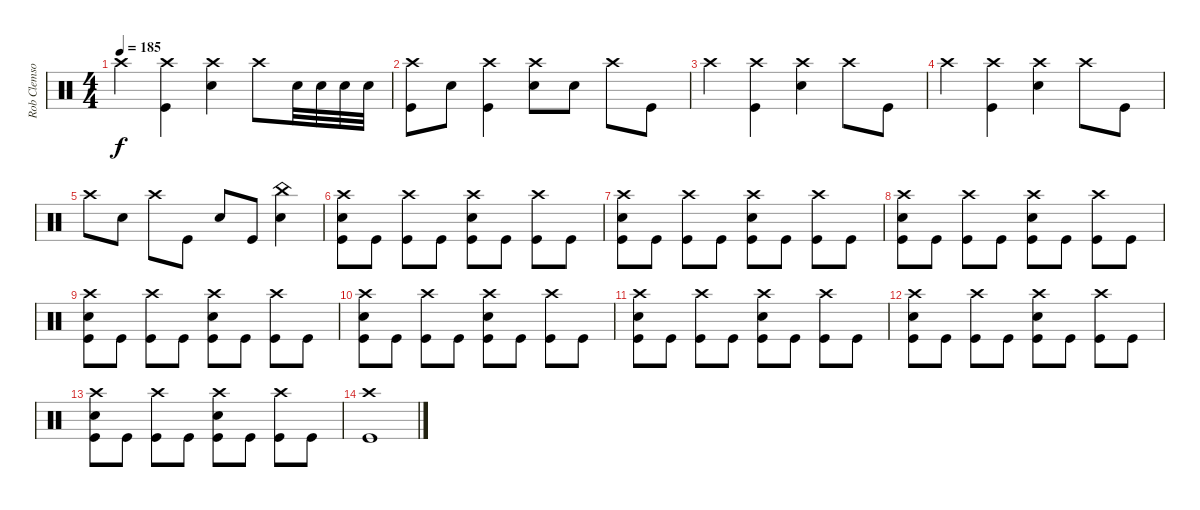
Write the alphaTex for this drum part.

\track ("Rob Clemson (Drums)" "Rob Clemso") {instrument percussion}
\staff {score}
\articulation defaults
\ts (4 4)
\tempo 185
\clef neutral
\ks c "Crash high (hit)".4{dy f}
("Crash high (hit)" "Kick (hit)").4 ("Crash high (hit)" "Electric Snare (hit)").4 "Crash high (hit)".8 "Electric Snare (hit)".32 "Electric Snare (hit)".32 "Electric Snare (hit)".32 "Electric Snare (hit)".32 |
("Crash high (hit)" "Kick (hit)").8 "Electric Snare (hit)".8 ("Crash high (hit)" "Kick (hit)").4 ("Crash high (hit)" "Electric Snare (hit)").8 "Electric Snare (hit)".8 "Crash high (hit)".8 "Kick (hit)".8 |
"Crash high (hit)".4 ("Crash high (hit)" "Kick (hit)").4 ("Crash high (hit)" "Electric Snare (hit)").4 "Crash high (hit)".8 "Kick (hit)".8 |
"Crash high (hit)".4 ("Crash high (hit)" "Kick (hit)").4 ("Crash high (hit)" "Electric Snare (hit)").4 "Crash high (hit)".8 "Kick (hit)".8 |
"Crash high (hit)".8 "Electric Snare (hit)".8 "Crash high (hit)".8 "Kick (hit)".8 "Electric Snare (hit)".8 "Kick (hit)".8 ("Electric Snare (hit)" "China (hit)").4 |
("Crash high (hit)" "Kick (hit)" "Electric Snare (hit)").8 "Kick (hit)".8 ("Crash high (hit)" "Kick (hit)").8 "Kick (hit)".8 ("Crash high (hit)" "Kick (hit)" "Electric Snare (hit)").8 "Kick (hit)".8 ("Crash high (hit)" "Kick (hit)").8 "Kick (hit)".8 |
("Crash high (hit)" "Kick (hit)" "Electric Snare (hit)").8 "Kick (hit)".8 ("Crash high (hit)" "Kick (hit)").8 "Kick (hit)".8 ("Crash high (hit)" "Kick (hit)" "Electric Snare (hit)").8 "Kick (hit)".8 ("Crash high (hit)" "Kick (hit)").8 "Kick (hit)".8 |
("Crash high (hit)" "Kick (hit)" "Electric Snare (hit)").8 "Kick (hit)".8 ("Crash high (hit)" "Kick (hit)").8 "Kick (hit)".8 ("Crash high (hit)" "Kick (hit)" "Electric Snare (hit)").8 "Kick (hit)".8 ("Crash high (hit)" "Kick (hit)").8 "Kick (hit)".8 |
("Crash high (hit)" "Kick (hit)" "Electric Snare (hit)").8 "Kick (hit)".8 ("Crash high (hit)" "Kick (hit)").8 "Kick (hit)".8 ("Crash high (hit)" "Kick (hit)" "Electric Snare (hit)").8 "Kick (hit)".8 ("Crash high (hit)" "Kick (hit)").8 "Kick (hit)".8 |
("Crash high (hit)" "Kick (hit)" "Electric Snare (hit)").8 "Kick (hit)".8 ("Crash high (hit)" "Kick (hit)").8 "Kick (hit)".8 ("Crash high (hit)" "Kick (hit)" "Electric Snare (hit)").8 "Kick (hit)".8 ("Crash high (hit)" "Kick (hit)").8 "Kick (hit)".8 |
("Crash high (hit)" "Kick (hit)" "Electric Snare (hit)").8 "Kick (hit)".8 ("Crash high (hit)" "Kick (hit)").8 "Kick (hit)".8 ("Crash high (hit)" "Kick (hit)" "Electric Snare (hit)").8 "Kick (hit)".8 ("Crash high (hit)" "Kick (hit)").8 "Kick (hit)".8 |
("Crash high (hit)" "Kick (hit)" "Electric Snare (hit)").8 "Kick (hit)".8 ("Crash high (hit)" "Kick (hit)").8 "Kick (hit)".8 ("Crash high (hit)" "Kick (hit)" "Electric Snare (hit)").8 "Kick (hit)".8 ("Crash high (hit)" "Kick (hit)").8 "Kick (hit)".8 |
("Crash high (hit)" "Kick (hit)" "Electric Snare (hit)").8 "Kick (hit)".8 ("Crash high (hit)" "Kick (hit)").8 "Kick (hit)".8 ("Crash high (hit)" "Kick (hit)" "Electric Snare (hit)").8 "Kick (hit)".8 ("Crash high (hit)" "Kick (hit)").8 "Kick (hit)".8 |
("Kick (hit)" "Crash high (hit)").1
